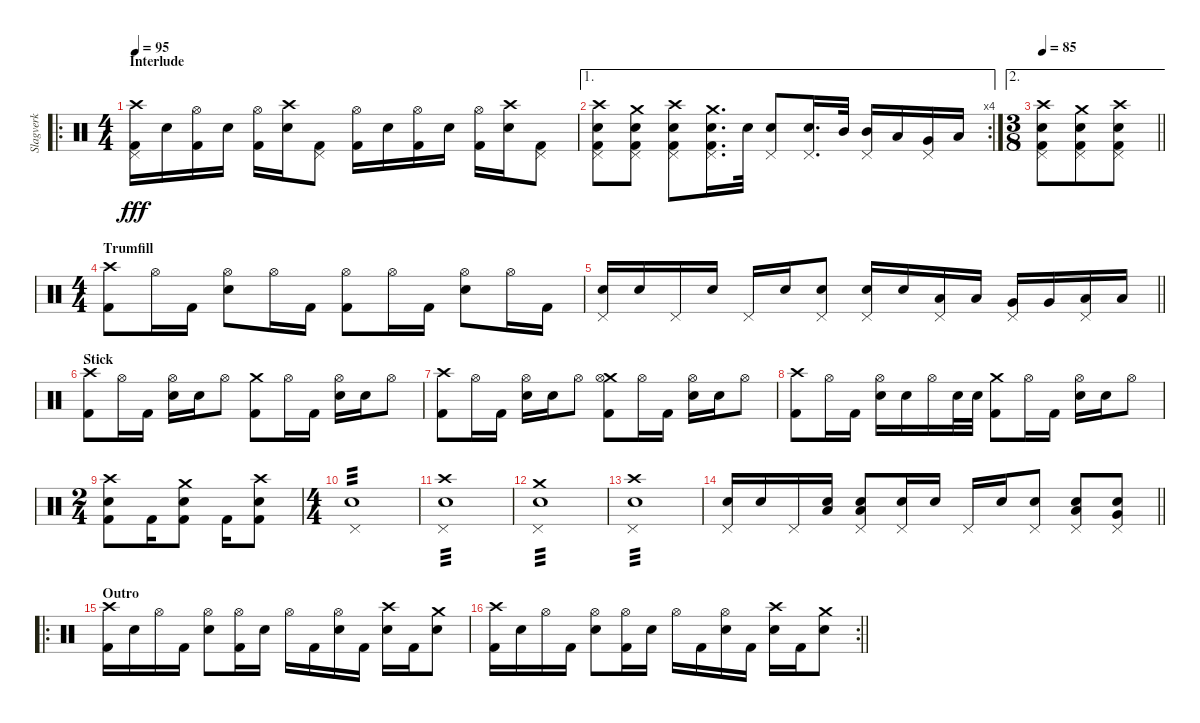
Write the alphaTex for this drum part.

\track ("Slagverk" "Slagverk") {instrument percussion}
\staff {score}
\articulation defaults
\ro
\ts (4 4)
\section ("" "Interlude")
\tempo 95
\clef neutral
\ks c
("Crash high (hit)" "Pedal Hi-Hat (hit)" "Kick (hit) 2").16{dy fff} "Snare (hit) 2".16 ("Hi-Hat (open)" "Kick (hit) 2").16 "Snare (hit) 2".16 ("Hi-Hat (open)" "Kick (hit) 2").16 ("Crash high (hit)" "Snare (hit) 2").16 ("Pedal Hi-Hat (hit)" "Kick (hit) 2").8 ("Hi-Hat (open)" "Kick (hit) 2").16 "Snare (hit) 2".16 ("Hi-Hat (open)" "Kick (hit) 2").16 "Snare (hit) 2".16 ("Hi-Hat (open)" "Kick (hit) 2").16 ("Crash high (hit)" "Snare (hit) 2").16 ("Pedal Hi-Hat (hit)" "Kick (hit) 2").8 |
\ae 1
\rc 4
("Crash high (hit)" "Pedal Hi-Hat (hit)" "Snare (hit) 2" "Kick (hit) 2").8 ("Crash medium (hit)" "Pedal Hi-Hat (hit)" "Snare (hit) 2" "Kick (hit) 2").8 ("Crash high (hit)" "Pedal Hi-Hat (hit)" "Snare (hit) 2" "Kick (hit) 2").8 ("Crash medium (hit)" "Pedal Hi-Hat (hit)" "Snare (hit) 2" "Kick (hit) 2").16{d} "Snare (hit) 2".32 ("Pedal Hi-Hat (hit)" "Snare (hit) 2").8 ("Pedal Hi-Hat (hit)" "Snare (hit) 2").16{d} "Mid Tom (hit)".32 ("Pedal Hi-Hat (hit)" "Mid Tom (hit)").16 "Low Tom (hit)".16 ("Pedal Hi-Hat (hit)" "Very Low Tom (hit)").16 "Low Floor Tom (hit)".16 |
\ae 2
\ts (3 8)
\tempo 85
\barLineRight lightlight
("Crash high (hit)" "Pedal Hi-Hat (hit)" "Snare (hit) 2" "Kick (hit) 2").8 ("Crash medium (hit)" "Pedal Hi-Hat (hit)" "Snare (hit) 2" "Kick (hit) 2").8 ("Crash high (hit)" "Pedal Hi-Hat (hit)" "Snare (hit) 2" "Kick (hit) 2").8 |
\ts (4 4)
\section ("" "Trumfill")
("Crash high (hit)" "Kick (hit) 2").8 "Hi-Hat (open)".16 "Kick (hit) 2".16 ("Hi-Hat (open)" "Snare (hit) 2").8 "Hi-Hat (open)".16 "Kick (hit) 2".16 ("Hi-Hat (open)" "Kick (hit) 2").8 "Hi-Hat (open)".16 "Kick (hit) 2".16 ("Hi-Hat (open)" "Snare (hit) 2").8 "Hi-Hat (open)".16 "Kick (hit) 2".16 |
\barLineRight lightlight
("Pedal Hi-Hat (hit)" "Snare (hit) 2").16 "Snare (hit) 2".16 "Pedal Hi-Hat (hit)".16 "Snare (hit) 2".16 "Pedal Hi-Hat (hit)".16 "Snare (hit) 2".16 ("Pedal Hi-Hat (hit)" "Snare (hit) 2").8 ("Pedal Hi-Hat (hit)" "Snare (hit) 2").16 "Snare (hit) 2".16 ("Pedal Hi-Hat (hit)" "Low Tom (hit)").16 "Low Tom (hit)".16 ("Pedal Hi-Hat (hit)" "Very Low Tom (hit)").16 "Very Low Tom (hit)".16 ("Pedal Hi-Hat (hit)" "Low Floor Tom (hit)").16 "Low Floor Tom (hit)".16 |
\section ("" "Stick")
("Crash high (hit)" "Kick (hit) 2").8 "Hi-Hat (open)".16 "Kick (hit) 2".16 ("Hi-Hat (open)" "Snare (hit) 2").16 "Snare (hit) 2".16 "Hi-Hat (open)".8 ("Crash medium (hit)" "Kick (hit) 2").8 "Hi-Hat (open)".16 "Kick (hit) 2".16 ("Hi-Hat (open)" "Snare (hit) 2").16 "Snare (hit) 2".16 "Hi-Hat (open)".8 |
("Crash high (hit)" "Kick (hit) 2").8 "Hi-Hat (open)".16 "Kick (hit) 2".16 ("Hi-Hat (open)" "Snare (hit) 2").16 "Snare (hit) 2".16 "Hi-Hat (open)".8 ("Crash medium (hit)" "Hi-Hat (open)" "Kick (hit) 2").8 "Hi-Hat (open)".16 "Kick (hit) 2".16 ("Hi-Hat (open)" "Snare (hit) 2").16 "Snare (hit) 2".16 "Hi-Hat (open)".8 |
("Crash high (hit)" "Kick (hit) 2").8 "Hi-Hat (open)".16 "Kick (hit) 2".16 ("Hi-Hat (open)" "Snare (hit) 2").16 "Snare (hit) 2".16 "Hi-Hat (open)".16 "Snare (hit) 2".32 "Snare (hit) 2".32 ("Crash medium (hit)" "Kick (hit) 2").8 "Hi-Hat (open)".16 "Kick (hit) 2".16 ("Hi-Hat (open)" "Snare (hit) 2").16 "Snare (hit) 2".16 "Hi-Hat (open)".8 |
\ts (2 4)
("Crash high (hit)" "Snare (hit) 2" "Kick (hit) 2").8 "Kick (hit) 2".16 ("Crash medium (hit)" "Snare (hit) 2" "Kick (hit) 2").8 "Kick (hit) 2".16 ("Crash high (hit)" "Snare (hit) 2" "Kick (hit) 2").8 |
\ts (4 4)
("Pedal Hi-Hat (hit)" "Snare (hit) 2").1{tp 3} |
("Crash high (hit)" "Pedal Hi-Hat (hit)" "Snare (hit) 2").1{tp 3} |
("Crash medium (hit)" "Pedal Hi-Hat (hit)" "Snare (hit) 2").1{tp 3} |
("Crash high (hit)" "Pedal Hi-Hat (hit)" "Snare (hit) 2").1{tp 3} |
\barLineRight lightlight
("Pedal Hi-Hat (hit)" "Snare (hit) 2").16 "Snare (hit) 2".16 "Pedal Hi-Hat (hit)".16 ("Low Tom (hit)" "Snare (hit) 2").16 ("Pedal Hi-Hat (hit)" "Low Tom (hit)" "Snare (hit) 2").8 ("Pedal Hi-Hat (hit)" "Snare (hit) 2").16 "Snare (hit) 2".16 "Pedal Hi-Hat (hit)".16 "Snare (hit) 2".16 ("Pedal Hi-Hat (hit)" "Snare (hit) 2").8 ("Pedal Hi-Hat (hit)" "Low Tom (hit)" "Snare (hit) 2").8 ("Pedal Hi-Hat (hit)" "Very Low Tom (hit)" "Snare (hit) 2").8 |
\ro
\section ("" "Outro")
("Crash high (hit)" "Kick (hit) 2").16 "Snare (hit) 2".16 "Hi-Hat (open)".16 "Kick (hit) 2".16 ("Hi-Hat (open)" "Snare (hit) 2").8 ("Hi-Hat (open)" "Kick (hit) 2").16 "Snare (hit) 2".16 "Hi-Hat (open)".16 "Kick (hit) 2".16 ("Hi-Hat (open)" "Snare (hit) 2").16 "Kick (hit) 2".16 ("Crash high (hit)" "Snare (hit) 2").16 "Kick (hit) 2".16 ("Crash medium (hit)" "Snare (hit) 2").8 |
\rc 2
\barLineRight lightlight
("Crash high (hit)" "Kick (hit) 2").16 "Snare (hit) 2".16 "Hi-Hat (open)".16 "Kick (hit) 2".16 ("Hi-Hat (open)" "Snare (hit) 2").8 ("Hi-Hat (open)" "Kick (hit) 2").16 "Snare (hit) 2".16 "Hi-Hat (open)".16 "Kick (hit) 2".16 ("Hi-Hat (open)" "Snare (hit) 2").16 "Kick (hit) 2".16 ("Crash high (hit)" "Snare (hit) 2").16 "Kick (hit) 2".16 ("Crash medium (hit)" "Snare (hit) 2").8
